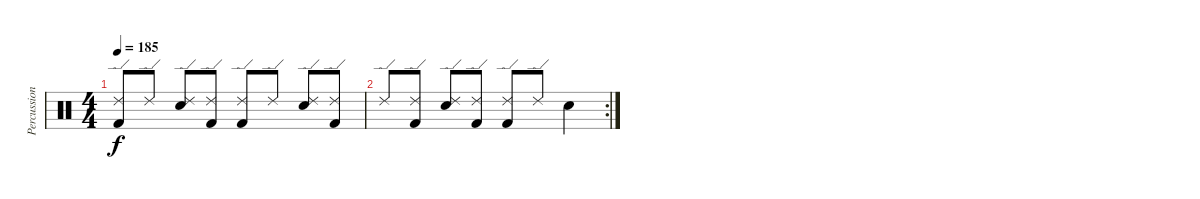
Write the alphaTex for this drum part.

\track ("Percussion" "Percussion") {instrument percussion}
\staff {score}
\articulation defaults
\ts (4 4)
\tempo 185
\clef neutral
\ks c
("Ride (edge) 2" "Kick (hit) 2").8{dy f} "Ride (edge) 2".8 ("Ride (edge) 2" "Snare (hit) 2").8 ("Ride (edge) 2" "Kick (hit) 2").8 ("Ride (edge) 2" "Kick (hit) 2").8 "Ride (edge) 2".8 ("Ride (edge) 2" "Snare (hit) 2").8 ("Ride (edge) 2" "Kick (hit) 2").8 |
\rc 2 "Ride (edge) 2".8
("Ride (edge) 2" "Kick (hit) 2").8 ("Ride (edge) 2" "Snare (hit) 2").8 ("Ride (edge) 2" "Kick (hit) 2").8 ("Ride (edge) 2" "Kick (hit) 2").8 "Ride (edge) 2".8 "Snare (hit) 2".4
